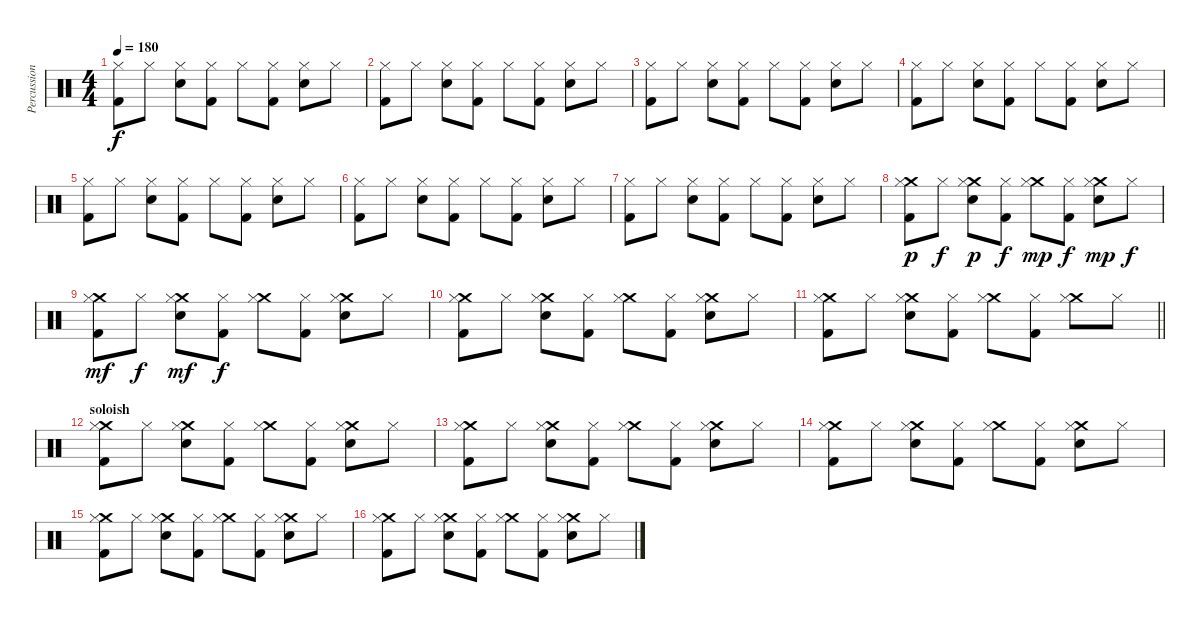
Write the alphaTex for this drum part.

\track ("Percussion" "Percussion") {instrument percussion}
\staff {score}
\articulation defaults
\ts (4 4)
\tempo 180
\clef neutral
\ks c
("Hi-Hat (closed)" "Kick (hit) 2").8{dy f} "Hi-Hat (closed)".8 ("Hi-Hat (closed)" "Snare (hit) 2").8 ("Hi-Hat (closed)" "Kick (hit) 2").8 "Hi-Hat (closed)".8 ("Hi-Hat (closed)" "Kick (hit) 2").8 ("Hi-Hat (closed)" "Snare (hit) 2").8 "Hi-Hat (closed)".8 |
("Hi-Hat (closed)" "Kick (hit) 2").8 "Hi-Hat (closed)".8 ("Hi-Hat (closed)" "Snare (hit) 2").8 ("Hi-Hat (closed)" "Kick (hit) 2").8 "Hi-Hat (closed)".8 ("Hi-Hat (closed)" "Kick (hit) 2").8 ("Hi-Hat (closed)" "Snare (hit) 2").8 "Hi-Hat (closed)".8 |
("Hi-Hat (closed)" "Kick (hit) 2").8 "Hi-Hat (closed)".8 ("Hi-Hat (closed)" "Snare (hit) 2").8 ("Hi-Hat (closed)" "Kick (hit) 2").8 "Hi-Hat (closed)".8 ("Hi-Hat (closed)" "Kick (hit) 2").8 ("Hi-Hat (closed)" "Snare (hit) 2").8 "Hi-Hat (closed)".8 |
("Hi-Hat (closed)" "Kick (hit) 2").8 "Hi-Hat (closed)".8 ("Hi-Hat (closed)" "Snare (hit) 2").8 ("Hi-Hat (closed)" "Kick (hit) 2").8 "Hi-Hat (closed)".8 ("Hi-Hat (closed)" "Kick (hit) 2").8 ("Hi-Hat (closed)" "Snare (hit) 2").8 "Hi-Hat (closed)".8 |
("Hi-Hat (closed)" "Kick (hit) 2").8 "Hi-Hat (closed)".8 ("Hi-Hat (closed)" "Snare (hit) 2").8 ("Hi-Hat (closed)" "Kick (hit) 2").8 "Hi-Hat (closed)".8 ("Hi-Hat (closed)" "Kick (hit) 2").8 ("Hi-Hat (closed)" "Snare (hit) 2").8 "Hi-Hat (closed)".8 |
("Hi-Hat (closed)" "Kick (hit) 2").8 "Hi-Hat (closed)".8 ("Hi-Hat (closed)" "Snare (hit) 2").8 ("Hi-Hat (closed)" "Kick (hit) 2").8 "Hi-Hat (closed)".8 ("Hi-Hat (closed)" "Kick (hit) 2").8 ("Hi-Hat (closed)" "Snare (hit) 2").8 "Hi-Hat (closed)".8 |
("Hi-Hat (closed)" "Kick (hit) 2").8 "Hi-Hat (closed)".8 ("Hi-Hat (closed)" "Snare (hit) 2").8 ("Hi-Hat (closed)" "Kick (hit) 2").8 "Hi-Hat (closed)".8 ("Hi-Hat (closed)" "Kick (hit) 2").8 ("Hi-Hat (closed)" "Snare (hit) 2").8 "Hi-Hat (closed)".8 |
("Crash medium (hit)" "Hi-Hat (closed)" "Kick (hit) 2").8{dy p} "Hi-Hat (closed)".8{dy f} ("Crash medium (hit)" "Hi-Hat (closed)" "Snare (hit) 2").8{dy p} ("Hi-Hat (closed)" "Kick (hit) 2").8{dy f} ("Crash medium (hit)" "Hi-Hat (closed)").8{dy mp} ("Hi-Hat (closed)" "Kick (hit) 2").8{dy f} ("Crash medium (hit)" "Hi-Hat (closed)" "Snare (hit) 2").8{dy mp} "Hi-Hat (closed)".8{dy f} |
("Crash medium (hit)" "Hi-Hat (closed)" "Kick (hit) 2").8{dy mf} "Hi-Hat (closed)".8{dy f} ("Crash medium (hit)" "Hi-Hat (closed)" "Snare (hit) 2").8{dy mf} ("Hi-Hat (closed)" "Kick (hit) 2").8{dy f} ("Crash medium (hit)" "Hi-Hat (closed)").8 ("Hi-Hat (closed)" "Kick (hit) 2").8 ("Crash medium (hit)" "Hi-Hat (closed)" "Snare (hit) 2").8 "Hi-Hat (closed)".8 |
("Crash medium (hit)" "Hi-Hat (closed)" "Kick (hit) 2").8 "Hi-Hat (closed)".8 ("Crash medium (hit)" "Hi-Hat (closed)" "Snare (hit) 2").8 ("Hi-Hat (closed)" "Kick (hit) 2").8 ("Crash medium (hit)" "Hi-Hat (closed)").8 ("Hi-Hat (closed)" "Kick (hit) 2").8 ("Crash medium (hit)" "Hi-Hat (closed)" "Snare (hit) 2").8 "Hi-Hat (closed)".8 |
\barLineRight lightlight
("Crash medium (hit)" "Hi-Hat (closed)" "Kick (hit) 2").8 "Hi-Hat (closed)".8 ("Crash medium (hit)" "Hi-Hat (closed)" "Snare (hit) 2").8 ("Hi-Hat (closed)" "Kick (hit) 2").8 ("Crash medium (hit)" "Hi-Hat (closed)").8 ("Hi-Hat (closed)" "Kick (hit) 2").8 ("Crash medium (hit)" "Hi-Hat (closed)").8 "Hi-Hat (closed)".8 |
\section ("" "soloish")
("Crash medium (hit)" "Hi-Hat (closed)" "Kick (hit) 2").8 "Hi-Hat (closed)".8 ("Crash medium (hit)" "Hi-Hat (closed)" "Snare (hit) 2").8 ("Hi-Hat (closed)" "Kick (hit) 2").8 ("Crash medium (hit)" "Hi-Hat (closed)").8 ("Hi-Hat (closed)" "Kick (hit) 2").8 ("Crash medium (hit)" "Hi-Hat (closed)" "Snare (hit) 2").8 "Hi-Hat (closed)".8 |
("Crash medium (hit)" "Hi-Hat (closed)" "Kick (hit) 2").8 "Hi-Hat (closed)".8 ("Crash medium (hit)" "Hi-Hat (closed)" "Snare (hit) 2").8 ("Hi-Hat (closed)" "Kick (hit) 2").8 ("Crash medium (hit)" "Hi-Hat (closed)").8 ("Hi-Hat (closed)" "Kick (hit) 2").8 ("Crash medium (hit)" "Hi-Hat (closed)" "Snare (hit) 2").8 "Hi-Hat (closed)".8 |
("Crash medium (hit)" "Hi-Hat (closed)" "Kick (hit) 2").8 "Hi-Hat (closed)".8 ("Crash medium (hit)" "Hi-Hat (closed)" "Snare (hit) 2").8 ("Hi-Hat (closed)" "Kick (hit) 2").8 ("Crash medium (hit)" "Hi-Hat (closed)").8 ("Hi-Hat (closed)" "Kick (hit) 2").8 ("Crash medium (hit)" "Hi-Hat (closed)" "Snare (hit) 2").8 "Hi-Hat (closed)".8 |
("Crash medium (hit)" "Hi-Hat (closed)" "Kick (hit) 2").8 "Hi-Hat (closed)".8 ("Crash medium (hit)" "Hi-Hat (closed)" "Snare (hit) 2").8 ("Hi-Hat (closed)" "Kick (hit) 2").8 ("Crash medium (hit)" "Hi-Hat (closed)").8 ("Hi-Hat (closed)" "Kick (hit) 2").8 ("Crash medium (hit)" "Hi-Hat (closed)" "Snare (hit) 2").8 "Hi-Hat (closed)".8 |
("Crash medium (hit)" "Hi-Hat (closed)" "Kick (hit) 2").8 "Hi-Hat (closed)".8 ("Crash medium (hit)" "Hi-Hat (closed)" "Snare (hit) 2").8 ("Hi-Hat (closed)" "Kick (hit) 2").8 ("Crash medium (hit)" "Hi-Hat (closed)").8 ("Hi-Hat (closed)" "Kick (hit) 2").8 ("Crash medium (hit)" "Hi-Hat (closed)" "Snare (hit) 2").8 "Hi-Hat (closed)".8
